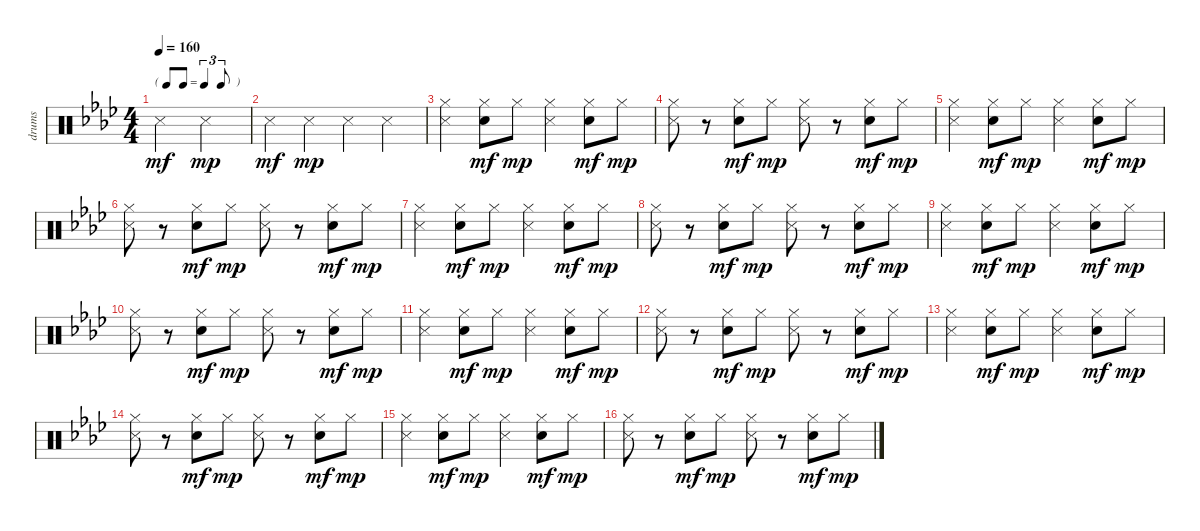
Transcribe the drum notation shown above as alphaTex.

\track ("drums" "drums") {instrument percussion}
\staff {score}
\articulation defaults
\ts (4 4)
\tf triplet8th
\tempo 160
\clef neutral
\ks ab "Snare (side stick) 3".2{dy mf} "Snare (side stick) 3".2{dy mp}
|
"Snare (side stick) 3".4{dy mf} "Snare (side stick) 3".4{dy mp} "Snare (side stick) 3".4 "Snare (side stick) 3".4 |
("Hi-Hat (closed)" "Snare (side stick) 3").4 ("Hi-Hat (closed)" "Snare (hit) 2").8{dy mf} "Hi-Hat (closed)".8{dy mp} ("Hi-Hat (closed)" "Snare (side stick) 3").4 ("Hi-Hat (closed)" "Snare (hit) 2").8{dy mf} "Hi-Hat (closed)".8{dy mp} |
("Hi-Hat (closed)" "Snare (side stick) 3").8 r.8 ("Hi-Hat (closed)" "Snare (hit) 2").8{dy mf} "Hi-Hat (closed)".8{dy mp} ("Hi-Hat (closed)" "Snare (side stick) 3").8 r.8 ("Hi-Hat (closed)" "Snare (hit) 2").8{dy mf} "Hi-Hat (closed)".8{dy mp} |
("Hi-Hat (closed)" "Snare (side stick) 3").4 ("Hi-Hat (closed)" "Snare (hit) 2").8{dy mf} "Hi-Hat (closed)".8{dy mp} ("Hi-Hat (closed)" "Snare (side stick) 3").4 ("Hi-Hat (closed)" "Snare (hit) 2").8{dy mf} "Hi-Hat (closed)".8{dy mp} |
("Hi-Hat (closed)" "Snare (side stick) 3").8 r.8 ("Hi-Hat (closed)" "Snare (hit) 2").8{dy mf} "Hi-Hat (closed)".8{dy mp} ("Hi-Hat (closed)" "Snare (side stick) 3").8 r.8 ("Hi-Hat (closed)" "Snare (hit) 2").8{dy mf} "Hi-Hat (closed)".8{dy mp} |
("Hi-Hat (closed)" "Snare (side stick) 3").4 ("Hi-Hat (closed)" "Snare (hit) 2").8{dy mf} "Hi-Hat (closed)".8{dy mp} ("Hi-Hat (closed)" "Snare (side stick) 3").4 ("Hi-Hat (closed)" "Snare (hit) 2").8{dy mf} "Hi-Hat (closed)".8{dy mp} |
("Hi-Hat (closed)" "Snare (side stick) 3").8 r.8 ("Hi-Hat (closed)" "Snare (hit) 2").8{dy mf} "Hi-Hat (closed)".8{dy mp} ("Hi-Hat (closed)" "Snare (side stick) 3").8 r.8 ("Hi-Hat (closed)" "Snare (hit) 2").8{dy mf} "Hi-Hat (closed)".8{dy mp} |
("Hi-Hat (closed)" "Snare (side stick) 3").4 ("Hi-Hat (closed)" "Snare (hit) 2").8{dy mf} "Hi-Hat (closed)".8{dy mp} ("Hi-Hat (closed)" "Snare (side stick) 3").4 ("Hi-Hat (closed)" "Snare (hit) 2").8{dy mf} "Hi-Hat (closed)".8{dy mp} |
("Hi-Hat (closed)" "Snare (side stick) 3").8 r.8 ("Hi-Hat (closed)" "Snare (hit) 2").8{dy mf} "Hi-Hat (closed)".8{dy mp} ("Hi-Hat (closed)" "Snare (side stick) 3").8 r.8 ("Hi-Hat (closed)" "Snare (hit) 2").8{dy mf} "Hi-Hat (closed)".8{dy mp} |
("Hi-Hat (closed)" "Snare (side stick) 3").4 ("Hi-Hat (closed)" "Snare (hit) 2").8{dy mf} "Hi-Hat (closed)".8{dy mp} ("Hi-Hat (closed)" "Snare (side stick) 3").4 ("Hi-Hat (closed)" "Snare (hit) 2").8{dy mf} "Hi-Hat (closed)".8{dy mp} |
("Hi-Hat (closed)" "Snare (side stick) 3").8 r.8 ("Hi-Hat (closed)" "Snare (hit) 2").8{dy mf} "Hi-Hat (closed)".8{dy mp} ("Hi-Hat (closed)" "Snare (side stick) 3").8 r.8 ("Hi-Hat (closed)" "Snare (hit) 2").8{dy mf} "Hi-Hat (closed)".8{dy mp} |
("Hi-Hat (closed)" "Snare (side stick) 3").4 ("Hi-Hat (closed)" "Snare (hit) 2").8{dy mf} "Hi-Hat (closed)".8{dy mp} ("Hi-Hat (closed)" "Snare (side stick) 3").4 ("Hi-Hat (closed)" "Snare (hit) 2").8{dy mf} "Hi-Hat (closed)".8{dy mp} |
("Hi-Hat (closed)" "Snare (side stick) 3").8 r.8 ("Hi-Hat (closed)" "Snare (hit) 2").8{dy mf} "Hi-Hat (closed)".8{dy mp} ("Hi-Hat (closed)" "Snare (side stick) 3").8 r.8 ("Hi-Hat (closed)" "Snare (hit) 2").8{dy mf} "Hi-Hat (closed)".8{dy mp} |
("Hi-Hat (closed)" "Snare (side stick) 3").4 ("Hi-Hat (closed)" "Snare (hit) 2").8{dy mf} "Hi-Hat (closed)".8{dy mp} ("Hi-Hat (closed)" "Snare (side stick) 3").4 ("Hi-Hat (closed)" "Snare (hit) 2").8{dy mf} "Hi-Hat (closed)".8{dy mp} |
("Hi-Hat (closed)" "Snare (side stick) 3").8 r.8 ("Hi-Hat (closed)" "Snare (hit) 2").8{dy mf} "Hi-Hat (closed)".8{dy mp} ("Hi-Hat (closed)" "Snare (side stick) 3").8 r.8 ("Hi-Hat (closed)" "Snare (hit) 2").8{dy mf} "Hi-Hat (closed)".8{dy mp}
